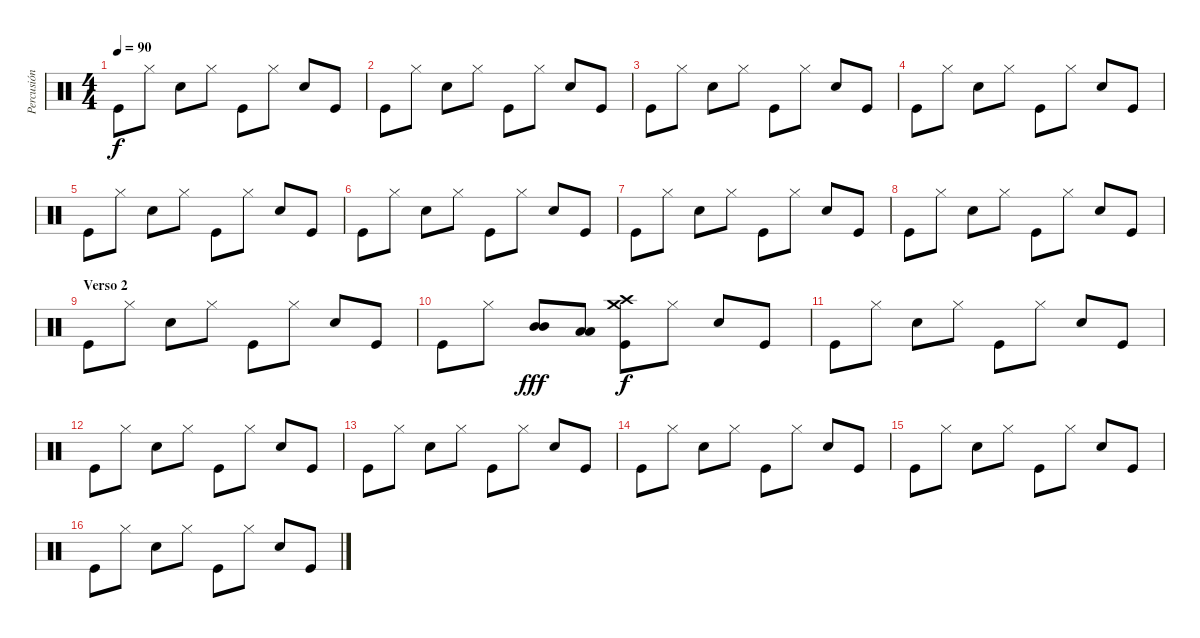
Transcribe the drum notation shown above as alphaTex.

\track ("Percusión" "Percusión") {instrument percussion}
\staff {score}
\articulation defaults
\ts (4 4)
\tempo 90
\clef neutral
\ks c "Kick (hit)".8{dy f} "Hi-Hat (closed)".8 "Snare (hit) 2".8 "Hi-Hat (closed)".8 "Kick (hit)".8 "Hi-Hat (closed)".8 "Snare (hit) 2".8 "Kick (hit)".8
|
"Kick (hit)".8 "Hi-Hat (closed)".8 "Snare (hit) 2".8 "Hi-Hat (closed)".8 "Kick (hit)".8 "Hi-Hat (closed)".8 "Snare (hit) 2".8 "Kick (hit)".8 |
"Kick (hit)".8 "Hi-Hat (closed)".8 "Snare (hit) 2".8 "Hi-Hat (closed)".8 "Kick (hit)".8 "Hi-Hat (closed)".8 "Snare (hit) 2".8 "Kick (hit)".8 |
"Kick (hit)".8 "Hi-Hat (closed)".8 "Snare (hit) 2".8 "Hi-Hat (closed)".8 "Kick (hit)".8 "Hi-Hat (closed)".8 "Snare (hit) 2".8 "Kick (hit)".8 |
"Kick (hit)".8 "Hi-Hat (closed)".8 "Snare (hit) 2".8 "Hi-Hat (closed)".8 "Kick (hit)".8 "Hi-Hat (closed)".8 "Snare (hit) 2".8 "Kick (hit)".8 |
"Kick (hit)".8 "Hi-Hat (closed)".8 "Snare (hit) 2".8 "Hi-Hat (closed)".8 "Kick (hit)".8 "Hi-Hat (closed)".8 "Snare (hit) 2".8 "Kick (hit)".8 |
"Kick (hit)".8 "Hi-Hat (closed)".8 "Snare (hit) 2".8 "Hi-Hat (closed)".8 "Kick (hit)".8 "Hi-Hat (closed)".8 "Snare (hit) 2".8 "Kick (hit)".8 |
"Kick (hit)".8 "Hi-Hat (closed)".8 "Snare (hit) 2".8 "Hi-Hat (closed)".8 "Kick (hit)".8 "Hi-Hat (closed)".8 "Snare (hit) 2".8 "Kick (hit)".8 |
\section ("" "Verso 2")
"Kick (hit)".8 "Hi-Hat (closed)".8 "Snare (hit) 2".8 "Hi-Hat (closed)".8 "Kick (hit)".8 "Hi-Hat (closed)".8 "Snare (hit) 2".8 "Kick (hit)".8 |
"Kick (hit)".8 "Hi-Hat (closed)".8 ("Mid Tom (hit)" "Mid Tom (hit)").8{dy fff} ("Low Tom (hit)" "Low Tom (hit)").8 ("Crash high (hit)" "Crash medium (hit)" "Kick (hit)").8{dy f} "Hi-Hat (closed)".8 "Snare (hit) 2".8 "Kick (hit)".8 |
"Kick (hit)".8 "Hi-Hat (closed)".8 "Snare (hit) 2".8 "Hi-Hat (closed)".8 "Kick (hit)".8 "Hi-Hat (closed)".8 "Snare (hit) 2".8 "Kick (hit)".8 |
"Kick (hit)".8 "Hi-Hat (closed)".8 "Snare (hit) 2".8 "Hi-Hat (closed)".8 "Kick (hit)".8 "Hi-Hat (closed)".8 "Snare (hit) 2".8 "Kick (hit)".8 |
"Kick (hit)".8 "Hi-Hat (closed)".8 "Snare (hit) 2".8 "Hi-Hat (closed)".8 "Kick (hit)".8 "Hi-Hat (closed)".8 "Snare (hit) 2".8 "Kick (hit)".8 |
"Kick (hit)".8 "Hi-Hat (closed)".8 "Snare (hit) 2".8 "Hi-Hat (closed)".8 "Kick (hit)".8 "Hi-Hat (closed)".8 "Snare (hit) 2".8 "Kick (hit)".8 |
"Kick (hit)".8 "Hi-Hat (closed)".8 "Snare (hit) 2".8 "Hi-Hat (closed)".8 "Kick (hit)".8 "Hi-Hat (closed)".8 "Snare (hit) 2".8 "Kick (hit)".8 |
"Kick (hit)".8 "Hi-Hat (closed)".8 "Snare (hit) 2".8 "Hi-Hat (closed)".8 "Kick (hit)".8 "Hi-Hat (closed)".8 "Snare (hit) 2".8 "Kick (hit)".8
